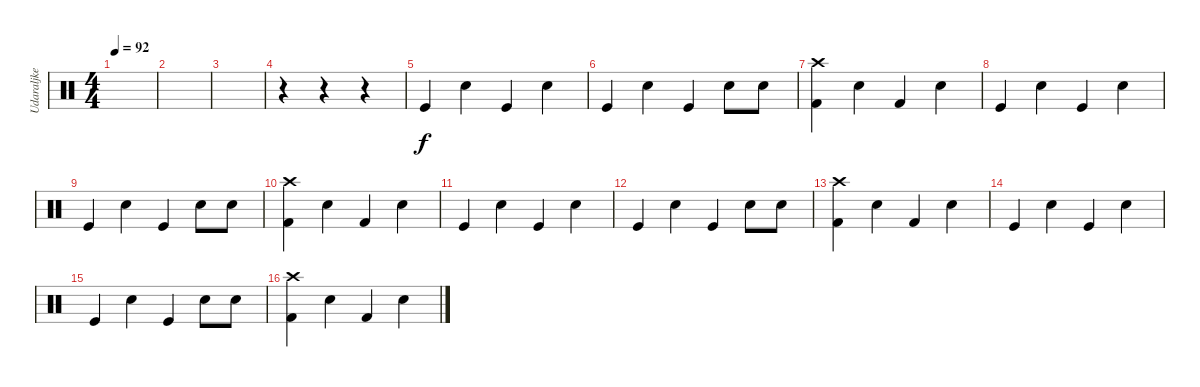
\track ("Udaraljke" "Udaraljke") {instrument percussion}
\staff {score}
\articulation defaults
\ts (4 4)
\tempo 92
\clef neutral
\ks c
|
|
|
r.4 r.4 r.4 |
"Kick (hit)".4 "Electric Snare (hit)".4 "Kick (hit)".4 "Electric Snare (hit)".4 |
"Kick (hit)".4 "Electric Snare (hit)".4 "Kick (hit)".4 "Electric Snare (hit)".8 "Snare (hit) 2".8 |
("Crash high (hit)" "Kick (hit) 2").4 "Electric Snare (hit)".4 "Kick (hit) 2".4 "Electric Snare (hit)".4 |
"Kick (hit)".4 "Electric Snare (hit)".4 "Kick (hit)".4 "Electric Snare (hit)".4 |
"Kick (hit)".4 "Electric Snare (hit)".4 "Kick (hit)".4 "Electric Snare (hit)".8 "Snare (hit) 2".8 |
("Crash high (hit)" "Kick (hit) 2").4 "Electric Snare (hit)".4 "Kick (hit) 2".4 "Electric Snare (hit)".4 |
"Kick (hit)".4 "Electric Snare (hit)".4 "Kick (hit)".4 "Electric Snare (hit)".4 |
"Kick (hit)".4 "Electric Snare (hit)".4 "Kick (hit)".4 "Electric Snare (hit)".8 "Snare (hit) 2".8 |
("Crash high (hit)" "Kick (hit) 2").4 "Electric Snare (hit)".4 "Kick (hit) 2".4 "Electric Snare (hit)".4 |
"Kick (hit)".4 "Electric Snare (hit)".4 "Kick (hit)".4 "Electric Snare (hit)".4 |
"Kick (hit)".4 "Electric Snare (hit)".4 "Kick (hit)".4 "Electric Snare (hit)".8 "Snare (hit) 2".8 |
("Crash high (hit)" "Kick (hit) 2").4 "Electric Snare (hit)".4 "Kick (hit) 2".4 "Electric Snare (hit)".4
